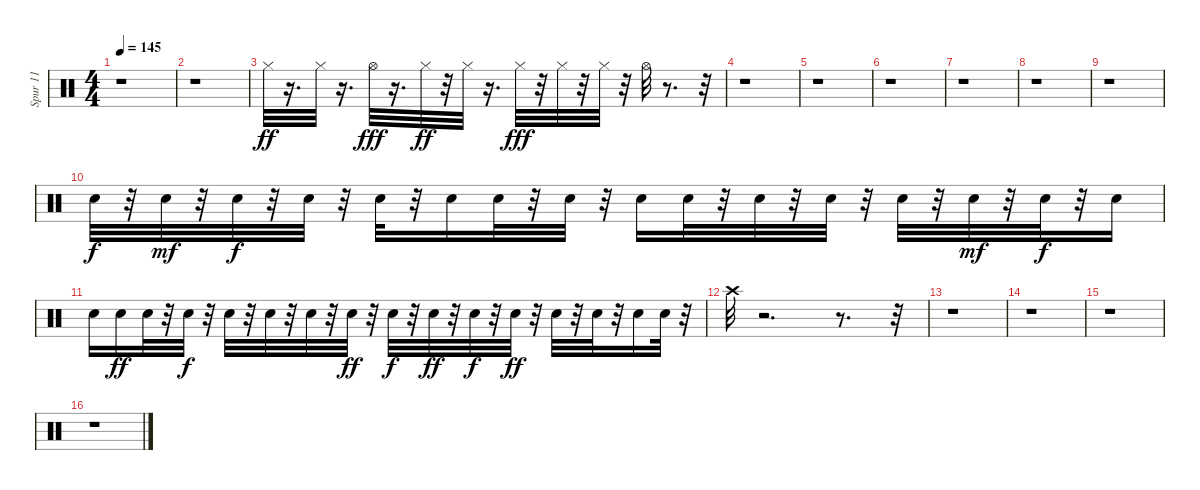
\track ("Spur 11" "Spur 11") {instrument percussion}
\staff {score}
\articulation defaults
\ts (4 4)
\tempo 145
\clef neutral
\ks c
r.1{dy fff} |
r.1 |
"Hi-Hat (closed)".32{dy ff} r.16{d} "Hi-Hat (closed)".32 r.16{d} "Hi-Hat (open)".32{dy fff} r.16{d} "Hi-Hat (closed)".32{dy ff} r.32 "Hi-Hat (closed)".32 r.16{d} "Hi-Hat (closed)".32{dy fff} r.32 "Hi-Hat (closed)".32 r.32 "Hi-Hat (closed)".32 r.32 "Hi-Hat (open)".32 r.8{d} r.32 |
r.1 |
r.1 |
r.1 |
r.1 |
r.1 |
r.1 |
"Electric Snare (hit)".32{dy f} r.32 "Electric Snare (hit)".32{dy mf} r.32 "Electric Snare (hit)".32{dy f} r.32 "Electric Snare (hit)".32 r.32 "Electric Snare (hit)".32 r.32 "Electric Snare (hit)".16 "Electric Snare (hit)".32 r.32 "Electric Snare (hit)".32 r.32 "Electric Snare (hit)".16 "Electric Snare (hit)".32 r.32 "Electric Snare (hit)".32 r.32 "Electric Snare (hit)".32 r.32 "Electric Snare (hit)".32 r.32 "Electric Snare (hit)".32{dy mf} r.32 "Electric Snare (hit)".32{dy f} r.32 "Electric Snare (hit)".16 |
"Electric Snare (hit)".16 "Electric Snare (hit)".16{dy ff} "Electric Snare (hit)".32 r.32 "Electric Snare (hit)".32{dy f} r.32 "Electric Snare (hit)".32 r.32 "Electric Snare (hit)".32 r.32 "Electric Snare (hit)".32 r.32 "Electric Snare (hit)".32{dy ff} r.32 "Electric Snare (hit)".32{dy f} r.32 "Electric Snare (hit)".32{dy ff} r.32 "Electric Snare (hit)".32{dy f} r.32 "Electric Snare (hit)".32{dy ff} r.32 "Electric Snare (hit)".32 r.32 "Electric Snare (hit)".32 r.32 "Electric Snare (hit)".16 "Electric Snare (hit)".32 r.32 |
"Crash high (hit)".32 r.2{d} r.8{d} r.32 |
r.1 |
r.1 |
r.1 |
r.1
